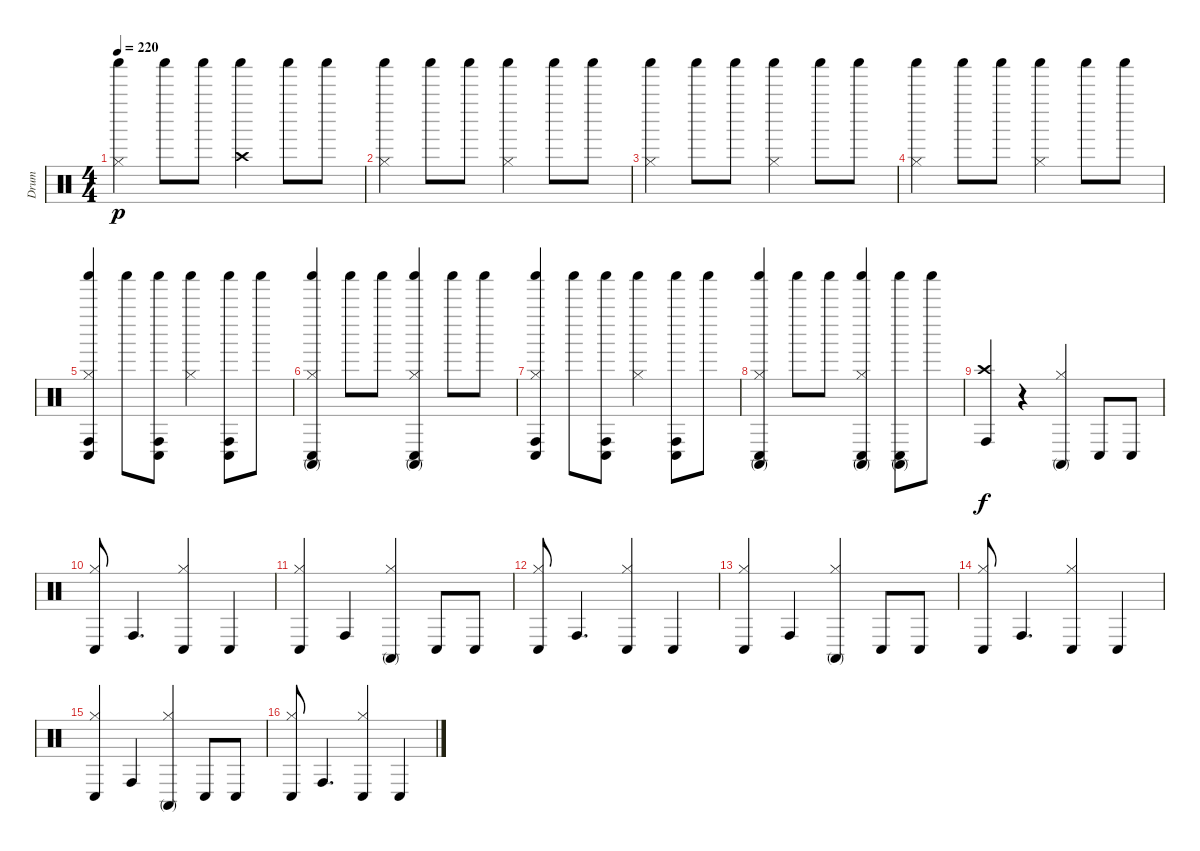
\track ("Drum" "Drum") {instrument percussion}
\staff {score}
\articulation defaults
\ts (4 4)
\tempo 220
\clef neutral
\ks c
("Hi-Hat (closed)" "Shaker (hit)").4{dy p} "Shaker (hit)".8 "Shaker (hit)".8 ("Crash high (hit)" "Shaker (hit)").4 "Shaker (hit)".8 "Shaker (hit)".8 |
("Hi-Hat (closed)" "Shaker (hit)").4 "Shaker (hit)".8 "Shaker (hit)".8 ("Hi-Hat (closed)" "Shaker (hit)").4 "Shaker (hit)".8 "Shaker (hit)".8 |
("Hi-Hat (closed)" "Shaker (hit)").4 "Shaker (hit)".8 "Shaker (hit)".8 ("Hi-Hat (closed)" "Shaker (hit)").4 "Shaker (hit)".8 "Shaker (hit)".8 |
("Hi-Hat (closed)" "Shaker (hit)").4 "Shaker (hit)".8 "Shaker (hit)".8 ("Hi-Hat (closed)" "Shaker (hit)").4 "Shaker (hit)".8 "Shaker (hit)".8 |
("Hi-Hat (closed)" "Conga low (hit)" "Conga high (hit)" "Shaker (hit)").4 "Shaker (hit)".8 ("Conga low (hit)" "Conga high (hit)" "Shaker (hit)").8 ("Hi-Hat (closed)" "Shaker (hit)").4 ("Conga low (hit)" "Conga high (hit)" "Shaker (hit)").8 "Shaker (hit)".8 |
("Hi-Hat (closed)" "Conga low (hit)" "Conga high (mute)" "Shaker (hit)").4 "Shaker (hit)".8 "Shaker (hit)".8 ("Hi-Hat (closed)" "Conga low (hit)" "Conga high (mute)" "Shaker (hit)").4 "Shaker (hit)".8 "Shaker (hit)".8 |
("Hi-Hat (closed)" "Conga low (hit)" "Conga high (hit)" "Shaker (hit)").4 "Shaker (hit)".8 ("Conga low (hit)" "Conga high (hit)" "Shaker (hit)").8 ("Hi-Hat (closed)" "Shaker (hit)").4 ("Conga low (hit)" "Conga high (hit)" "Shaker (hit)").8 "Shaker (hit)".8 |
("Hi-Hat (closed)" "Conga low (hit)" "Conga high (mute)" "Shaker (hit)").4 "Shaker (hit)".8 "Shaker (hit)".8 ("Hi-Hat (closed)" "Conga low (hit)" "Conga high (mute)" "Shaker (hit)").4 ("Conga low (hit)" "Conga high (mute)" "Shaker (hit)").8 "Shaker (hit)".8 |
("Crash high (hit)" "Conga high (hit)").4{dy f} r.4 ("Hi-Hat (closed)" "Conga high (mute)").4 "Conga low (hit)".8 "Conga low (hit)".8 |
("Hi-Hat (closed)" "Conga low (hit)").8 "Conga high (hit)".4{d} ("Hi-Hat (closed)" "Conga low (hit)").4 "Conga low (hit)".4 |
("Hi-Hat (closed)" "Conga low (hit)").4 "Conga high (hit)".4 ("Hi-Hat (closed)" "Conga high (mute)").4 "Conga low (hit)".8 "Conga low (hit)".8 |
("Hi-Hat (closed)" "Conga low (hit)").8 "Conga high (hit)".4{d} ("Hi-Hat (closed)" "Conga low (hit)").4 "Conga low (hit)".4 |
("Hi-Hat (closed)" "Conga low (hit)").4 "Conga high (hit)".4 ("Hi-Hat (closed)" "Conga high (mute)").4 "Conga low (hit)".8 "Conga low (hit)".8 |
("Hi-Hat (closed)" "Conga low (hit)").8 "Conga high (hit)".4{d} ("Hi-Hat (closed)" "Conga low (hit)").4 "Conga low (hit)".4 |
("Hi-Hat (closed)" "Conga low (hit)").4 "Conga high (hit)".4 ("Hi-Hat (closed)" "Conga high (mute)").4 "Conga low (hit)".8 "Conga low (hit)".8 |
("Hi-Hat (closed)" "Conga low (hit)").8 "Conga high (hit)".4{d} ("Hi-Hat (closed)" "Conga low (hit)").4 "Conga low (hit)".4
